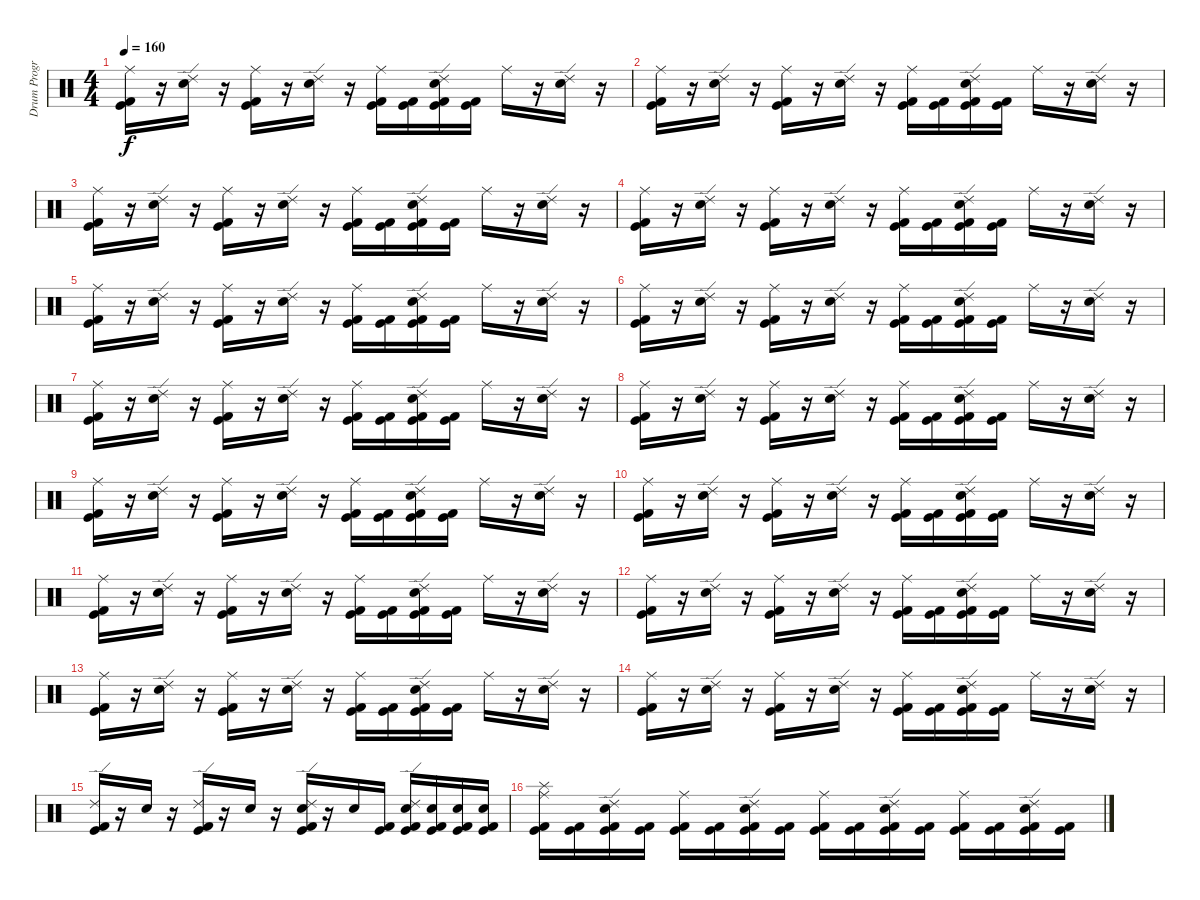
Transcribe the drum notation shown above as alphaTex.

\track ("Drum Program - BG" "Drum Progr") {instrument percussion}
\staff {score}
\articulation defaults
\ts (4 4)
\tempo 160
\clef neutral
\ks c
("Kick (hit) 2" "Kick (hit)" "Ride (middle)").16{dy f} r.16 ("Electric Snare (hit)" "Ride (edge) 2").16 r.16 ("Kick (hit)" "Kick (hit) 2" "Ride (middle)").16 r.16 ("Electric Snare (hit)" "Ride (edge) 2").16 r.16 ("Kick (hit)" "Kick (hit) 2" "Ride (middle)").16 ("Kick (hit)" "Kick (hit) 2").16 ("Kick (hit)" "Kick (hit) 2" "Electric Snare (hit)" "Ride (edge) 2").16 ("Kick (hit)" "Kick (hit) 2").16 "Ride (middle)".16 r.16 ("Electric Snare (hit)" "Ride (edge) 2").16 r.16 |
("Kick (hit) 2" "Kick (hit)" "Ride (middle)").16 r.16 ("Electric Snare (hit)" "Ride (edge) 2").16 r.16 ("Kick (hit)" "Kick (hit) 2" "Ride (middle)").16 r.16 ("Electric Snare (hit)" "Ride (edge) 2").16 r.16 ("Kick (hit)" "Kick (hit) 2" "Ride (middle)").16 ("Kick (hit)" "Kick (hit) 2").16 ("Kick (hit)" "Kick (hit) 2" "Electric Snare (hit)" "Ride (edge) 2").16 ("Kick (hit)" "Kick (hit) 2").16 "Ride (middle)".16 r.16 ("Electric Snare (hit)" "Ride (edge) 2").16 r.16 |
("Kick (hit) 2" "Kick (hit)" "Ride (middle)").16 r.16 ("Electric Snare (hit)" "Ride (edge) 2").16 r.16 ("Kick (hit)" "Kick (hit) 2" "Ride (middle)").16 r.16 ("Electric Snare (hit)" "Ride (edge) 2").16 r.16 ("Kick (hit)" "Kick (hit) 2" "Ride (middle)").16 ("Kick (hit)" "Kick (hit) 2").16 ("Kick (hit)" "Kick (hit) 2" "Electric Snare (hit)" "Ride (edge) 2").16 ("Kick (hit)" "Kick (hit) 2").16 "Ride (middle)".16 r.16 ("Electric Snare (hit)" "Ride (edge) 2").16 r.16 |
("Kick (hit) 2" "Kick (hit)" "Ride (middle)").16 r.16 ("Electric Snare (hit)" "Ride (edge) 2").16 r.16 ("Kick (hit)" "Kick (hit) 2" "Ride (middle)").16 r.16 ("Electric Snare (hit)" "Ride (edge) 2").16 r.16 ("Kick (hit)" "Kick (hit) 2" "Ride (middle)").16 ("Kick (hit)" "Kick (hit) 2").16 ("Kick (hit)" "Kick (hit) 2" "Electric Snare (hit)" "Ride (edge) 2").16 ("Kick (hit)" "Kick (hit) 2").16 "Ride (middle)".16 r.16 ("Electric Snare (hit)" "Ride (edge) 2").16 r.16 |
("Kick (hit) 2" "Kick (hit)" "Ride (middle)").16 r.16 ("Electric Snare (hit)" "Ride (edge) 2").16 r.16 ("Kick (hit)" "Kick (hit) 2" "Ride (middle)").16 r.16 ("Electric Snare (hit)" "Ride (edge) 2").16 r.16 ("Kick (hit)" "Kick (hit) 2" "Ride (middle)").16 ("Kick (hit)" "Kick (hit) 2").16 ("Kick (hit)" "Kick (hit) 2" "Electric Snare (hit)" "Ride (edge) 2").16 ("Kick (hit)" "Kick (hit) 2").16 "Ride (middle)".16 r.16 ("Electric Snare (hit)" "Ride (edge) 2").16 r.16 |
("Kick (hit) 2" "Kick (hit)" "Ride (middle)").16 r.16 ("Electric Snare (hit)" "Ride (edge) 2").16 r.16 ("Kick (hit)" "Kick (hit) 2" "Ride (middle)").16 r.16 ("Electric Snare (hit)" "Ride (edge) 2").16 r.16 ("Kick (hit)" "Kick (hit) 2" "Ride (middle)").16 ("Kick (hit)" "Kick (hit) 2").16 ("Kick (hit)" "Kick (hit) 2" "Electric Snare (hit)" "Ride (edge) 2").16 ("Kick (hit)" "Kick (hit) 2").16 "Ride (middle)".16 r.16 ("Electric Snare (hit)" "Ride (edge) 2").16 r.16 |
("Kick (hit) 2" "Kick (hit)" "Ride (middle)").16 r.16 ("Electric Snare (hit)" "Ride (edge) 2").16 r.16 ("Kick (hit)" "Kick (hit) 2" "Ride (middle)").16 r.16 ("Electric Snare (hit)" "Ride (edge) 2").16 r.16 ("Kick (hit)" "Kick (hit) 2" "Ride (middle)").16 ("Kick (hit)" "Kick (hit) 2").16 ("Kick (hit)" "Kick (hit) 2" "Electric Snare (hit)" "Ride (edge) 2").16 ("Kick (hit)" "Kick (hit) 2").16 "Ride (middle)".16 r.16 ("Electric Snare (hit)" "Ride (edge) 2").16 r.16 |
("Kick (hit) 2" "Kick (hit)" "Ride (middle)").16 r.16 ("Electric Snare (hit)" "Ride (edge) 2").16 r.16 ("Kick (hit)" "Kick (hit) 2" "Ride (middle)").16 r.16 ("Electric Snare (hit)" "Ride (edge) 2").16 r.16 ("Kick (hit)" "Kick (hit) 2" "Ride (middle)").16 ("Kick (hit)" "Kick (hit) 2").16 ("Kick (hit)" "Kick (hit) 2" "Electric Snare (hit)" "Ride (edge) 2").16 ("Kick (hit)" "Kick (hit) 2").16 "Ride (middle)".16 r.16 ("Electric Snare (hit)" "Ride (edge) 2").16 r.16 |
("Kick (hit) 2" "Kick (hit)" "Ride (middle)").16 r.16 ("Electric Snare (hit)" "Ride (edge) 2").16 r.16 ("Kick (hit)" "Kick (hit) 2" "Ride (middle)").16 r.16 ("Electric Snare (hit)" "Ride (edge) 2").16 r.16 ("Kick (hit)" "Kick (hit) 2" "Ride (middle)").16 ("Kick (hit)" "Kick (hit) 2").16 ("Kick (hit)" "Kick (hit) 2" "Electric Snare (hit)" "Ride (edge) 2").16 ("Kick (hit)" "Kick (hit) 2").16 "Ride (middle)".16 r.16 ("Electric Snare (hit)" "Ride (edge) 2").16 r.16 |
("Kick (hit) 2" "Kick (hit)" "Ride (middle)").16 r.16 ("Electric Snare (hit)" "Ride (edge) 2").16 r.16 ("Kick (hit)" "Kick (hit) 2" "Ride (middle)").16 r.16 ("Electric Snare (hit)" "Ride (edge) 2").16 r.16 ("Kick (hit)" "Kick (hit) 2" "Ride (middle)").16 ("Kick (hit)" "Kick (hit) 2").16 ("Kick (hit)" "Kick (hit) 2" "Electric Snare (hit)" "Ride (edge) 2").16 ("Kick (hit)" "Kick (hit) 2").16 "Ride (middle)".16 r.16 ("Electric Snare (hit)" "Ride (edge) 2").16 r.16 |
("Kick (hit) 2" "Kick (hit)" "Ride (middle)").16 r.16 ("Electric Snare (hit)" "Ride (edge) 2").16 r.16 ("Kick (hit)" "Kick (hit) 2" "Ride (middle)").16 r.16 ("Electric Snare (hit)" "Ride (edge) 2").16 r.16 ("Kick (hit)" "Kick (hit) 2" "Ride (middle)").16 ("Kick (hit)" "Kick (hit) 2").16 ("Kick (hit)" "Kick (hit) 2" "Electric Snare (hit)" "Ride (edge) 2").16 ("Kick (hit)" "Kick (hit) 2").16 "Ride (middle)".16 r.16 ("Electric Snare (hit)" "Ride (edge) 2").16 r.16 |
("Kick (hit) 2" "Kick (hit)" "Ride (middle)").16 r.16 ("Electric Snare (hit)" "Ride (edge) 2").16 r.16 ("Kick (hit)" "Kick (hit) 2" "Ride (middle)").16 r.16 ("Electric Snare (hit)" "Ride (edge) 2").16 r.16 ("Kick (hit)" "Kick (hit) 2" "Ride (middle)").16 ("Kick (hit)" "Kick (hit) 2").16 ("Kick (hit)" "Kick (hit) 2" "Electric Snare (hit)" "Ride (edge) 2").16 ("Kick (hit)" "Kick (hit) 2").16 "Ride (middle)".16 r.16 ("Electric Snare (hit)" "Ride (edge) 2").16 r.16 |
("Kick (hit) 2" "Kick (hit)" "Ride (middle)").16 r.16 ("Electric Snare (hit)" "Ride (edge) 2").16 r.16 ("Kick (hit)" "Kick (hit) 2" "Ride (middle)").16 r.16 ("Electric Snare (hit)" "Ride (edge) 2").16 r.16 ("Kick (hit)" "Kick (hit) 2" "Ride (middle)").16 ("Kick (hit)" "Kick (hit) 2").16 ("Kick (hit)" "Kick (hit) 2" "Electric Snare (hit)" "Ride (edge) 2").16 ("Kick (hit)" "Kick (hit) 2").16 "Ride (middle)".16 r.16 ("Electric Snare (hit)" "Ride (edge) 2").16 r.16 |
("Kick (hit) 2" "Kick (hit)" "Ride (middle)").16 r.16 ("Electric Snare (hit)" "Ride (edge) 2").16 r.16 ("Kick (hit)" "Kick (hit) 2" "Ride (middle)").16 r.16 ("Electric Snare (hit)" "Ride (edge) 2").16 r.16 ("Kick (hit)" "Kick (hit) 2" "Ride (middle)").16 ("Kick (hit)" "Kick (hit) 2").16 ("Kick (hit)" "Kick (hit) 2" "Electric Snare (hit)" "Ride (edge) 2").16 ("Kick (hit)" "Kick (hit) 2").16 "Ride (middle)".16 r.16 ("Electric Snare (hit)" "Ride (edge) 2").16 r.16 |
("Kick (hit)" "Kick (hit) 2" "Ride (edge) 2").16 r.16 "Electric Snare (hit)".16 r.16 ("Kick (hit)" "Kick (hit) 2" "Ride (edge) 2").16 r.16 "Electric Snare (hit)".16 r.16 ("Kick (hit)" "Kick (hit) 2" "Electric Snare (hit)" "Ride (edge) 2").16 r.16 "Electric Snare (hit)".16 ("Kick (hit)" "Kick (hit) 2").16 ("Kick (hit)" "Kick (hit) 2" "Electric Snare (hit)" "Ride (edge) 2").16 ("Kick (hit)" "Kick (hit) 2" "Electric Snare (hit)").16 ("Kick (hit)" "Kick (hit) 2" "Electric Snare (hit)").16 ("Kick (hit)" "Kick (hit) 2" "Electric Snare (hit)").16 |
("Kick (hit)" "Kick (hit) 2" "Splash (hit)" "Ride (middle)").16 ("Kick (hit)" "Kick (hit) 2").16 ("Kick (hit)" "Kick (hit) 2" "Electric Snare (hit)" "Ride (edge) 2").16 ("Kick (hit)" "Kick (hit) 2").16 ("Kick (hit)" "Kick (hit) 2" "Ride (middle)").16 ("Kick (hit)" "Kick (hit) 2").16 ("Kick (hit)" "Kick (hit) 2" "Electric Snare (hit)" "Ride (edge) 2").16 ("Kick (hit)" "Kick (hit) 2").16 ("Kick (hit)" "Kick (hit) 2" "Ride (middle)").16 ("Kick (hit)" "Kick (hit) 2").16 ("Kick (hit)" "Kick (hit) 2" "Electric Snare (hit)" "Ride (edge) 2").16 ("Kick (hit)" "Kick (hit) 2").16 ("Kick (hit)" "Kick (hit) 2" "Ride (middle)").16 ("Kick (hit)" "Kick (hit) 2").16 ("Kick (hit)" "Kick (hit) 2" "Electric Snare (hit)" "Ride (edge) 2").16 ("Kick (hit)" "Kick (hit) 2").16
